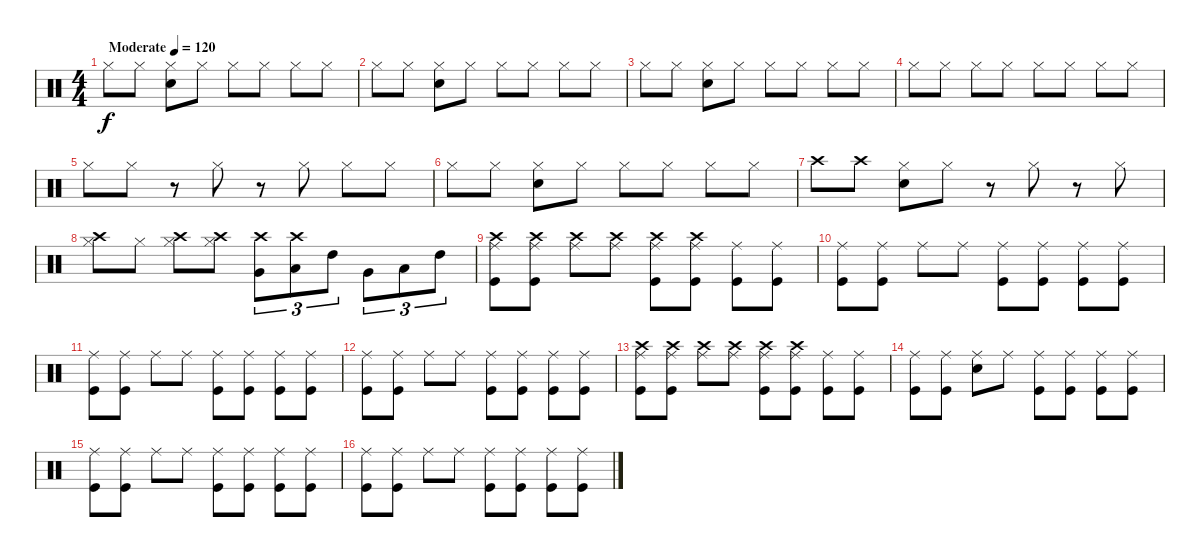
\track "" {instrument percussion}
\staff {score}
\articulation defaults
\ts (4 4)
\tempo (120 "Moderate")
\clef neutral
\ks c "Hi-Hat (closed)".8{dy f} "Hi-Hat (closed)".8
("Hi-Hat (closed)" "Snare (hit) 2").8 "Hi-Hat (closed)".8 "Hi-Hat (closed)".8 "Hi-Hat (closed)".8 "Hi-Hat (closed)".8 "Hi-Hat (closed)".8 |
"Hi-Hat (closed)".8 "Hi-Hat (closed)".8 ("Hi-Hat (closed)" "Snare (hit) 2").8 "Hi-Hat (closed)".8 "Hi-Hat (closed)".8 "Hi-Hat (closed)".8 "Hi-Hat (closed)".8 "Hi-Hat (closed)".8 |
"Hi-Hat (closed)".8 "Hi-Hat (closed)".8 ("Hi-Hat (closed)" "Snare (hit) 2").8 "Hi-Hat (closed)".8 "Hi-Hat (closed)".8 "Hi-Hat (closed)".8 "Hi-Hat (closed)".8 "Hi-Hat (closed)".8 |
"Hi-Hat (closed)".8 "Hi-Hat (closed)".8 "Hi-Hat (closed)".8 "Hi-Hat (closed)".8 "Hi-Hat (closed)".8 "Hi-Hat (closed)".8 "Hi-Hat (closed)".8 "Hi-Hat (closed)".8 |
"Hi-Hat (closed)".8 "Hi-Hat (closed)".8 r.8 "Hi-Hat (closed)".8 r.8 "Hi-Hat (closed)".8 "Hi-Hat (closed)".8 "Hi-Hat (closed)".8 |
"Hi-Hat (closed)".8 "Hi-Hat (closed)".8 ("Hi-Hat (closed)" "Snare (hit) 2").8 "Hi-Hat (closed)".8 "Hi-Hat (closed)".8 "Hi-Hat (closed)".8 "Hi-Hat (closed)".8 "Hi-Hat (closed)".8 |
"Crash high (hit)".8 "Crash high (hit)".8 ("Hi-Hat (closed)" "Snare (hit) 2").8 "Hi-Hat (closed)".8 r.8 "Hi-Hat (closed)".8 r.8 "Hi-Hat (closed)".8 |
("Crash high (hit)" "Hi-Hat (closed)").8 "Hi-Hat (closed)".8 ("Hi-Hat (closed)" "Crash high (hit)").8 ("Hi-Hat (closed)" "Crash high (hit)").8 ("Very Low Tom (hit)" "Crash high (hit)").8{tu (3 2)} ("Low Tom (hit)" "Crash high (hit)").8{tu (3 2)} "High Tom (hit)".8{tu (3 2)} "Very Low Tom (hit)".8{tu (3 2)} "Low Tom (hit)".8{tu (3 2)} "High Tom (hit)".8{tu (3 2)} |
("Ride (middle)" "Kick (hit)" "Crash high (hit)").8 ("Ride (middle)" "Kick (hit)" "Crash high (hit)").8 ("Ride (middle)" "Crash high (hit)").8 ("Ride (middle)" "Crash high (hit)").8 ("Ride (middle)" "Kick (hit)" "Crash high (hit)").8 ("Ride (middle)" "Kick (hit)" "Crash high (hit)").8 ("Ride (middle)" "Kick (hit)").8 ("Ride (middle)" "Kick (hit)").8 |
("Ride (middle)" "Kick (hit)").8 ("Ride (middle)" "Kick (hit)").8 "Ride (middle)".8 "Ride (middle)".8 ("Ride (middle)" "Kick (hit)").8 ("Ride (middle)" "Kick (hit)").8 ("Ride (middle)" "Kick (hit)").8 ("Ride (middle)" "Kick (hit)").8 |
("Ride (middle)" "Kick (hit)").8 ("Ride (middle)" "Kick (hit)").8 "Ride (middle)".8 "Ride (middle)".8 ("Ride (middle)" "Kick (hit)").8 ("Ride (middle)" "Kick (hit)").8 ("Ride (middle)" "Kick (hit)").8 ("Ride (middle)" "Kick (hit)").8 |
("Ride (middle)" "Kick (hit)").8 ("Ride (middle)" "Kick (hit)").8 "Ride (middle)".8 "Ride (middle)".8 ("Ride (middle)" "Kick (hit)").8 ("Ride (middle)" "Kick (hit)").8 ("Ride (middle)" "Kick (hit)").8 ("Ride (middle)" "Kick (hit)").8 |
("Ride (middle)" "Kick (hit)" "Crash high (hit)").8 ("Ride (middle)" "Kick (hit)" "Crash high (hit)").8 ("Ride (middle)" "Crash high (hit)").8 ("Ride (middle)" "Crash high (hit)").8 ("Ride (middle)" "Kick (hit)" "Crash high (hit)").8 ("Ride (middle)" "Kick (hit)" "Crash high (hit)").8 ("Ride (middle)" "Kick (hit)").8 ("Ride (middle)" "Kick (hit)").8 |
("Ride (middle)" "Kick (hit)").8 ("Ride (middle)" "Kick (hit)").8 ("Ride (middle)" "Snare (hit) 2").8 "Ride (middle)".8 ("Ride (middle)" "Kick (hit)").8 ("Ride (middle)" "Kick (hit)").8 ("Ride (middle)" "Kick (hit)").8 ("Ride (middle)" "Kick (hit)").8 |
("Ride (middle)" "Kick (hit)").8 ("Ride (middle)" "Kick (hit)").8 "Ride (middle)".8 "Ride (middle)".8 ("Ride (middle)" "Kick (hit)").8 ("Ride (middle)" "Kick (hit)").8 ("Ride (middle)" "Kick (hit)").8 ("Ride (middle)" "Kick (hit)").8 |
("Ride (middle)" "Kick (hit)").8 ("Ride (middle)" "Kick (hit)").8 "Ride (middle)".8 "Ride (middle)".8 ("Ride (middle)" "Kick (hit)").8 ("Ride (middle)" "Kick (hit)").8 ("Ride (middle)" "Kick (hit)").8 ("Ride (middle)" "Kick (hit)").8
